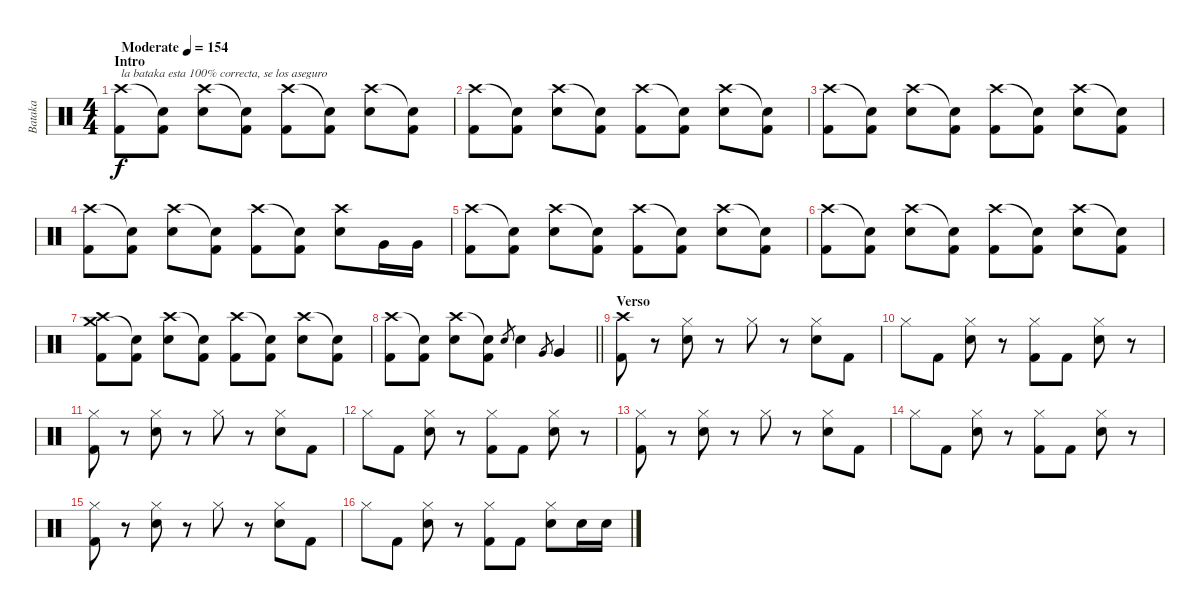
\track ("Bataka" "Bataka") {instrument percussion}
\staff {score}
\articulation defaults
\ts (4 4)
\section ("" "Intro")
\tempo (154 "Moderate")
\clef neutral
\ks c
("Crash high (hit)" "Kick (hit) 2").8{txt "la bataka esta 100% correcta, se los aseguro" dy f} ("Snare (hit)"{t} "Kick (hit) 2").8 ("Crash high (hit)" "Electric Snare (hit)").8 ("Snare (hit)"{t} "Kick (hit) 2").8 ("Crash high (hit)" "Kick (hit) 2").8 ("Snare (hit)"{t} "Kick (hit) 2").8 ("Crash high (hit)" "Electric Snare (hit)").8 ("Snare (hit)"{t} "Kick (hit) 2").8 |
("Crash high (hit)" "Kick (hit) 2").8 ("Snare (hit)"{t} "Kick (hit) 2").8 ("Crash high (hit)" "Electric Snare (hit)").8 ("Snare (hit)"{t} "Kick (hit) 2").8 ("Crash high (hit)" "Kick (hit) 2").8 ("Snare (hit)"{t} "Kick (hit) 2").8 ("Crash high (hit)" "Electric Snare (hit)").8 ("Snare (hit)"{t} "Kick (hit) 2").8 |
("Crash high (hit)" "Kick (hit) 2").8 ("Snare (hit)"{t} "Kick (hit) 2").8 ("Crash high (hit)" "Electric Snare (hit)").8 ("Snare (hit)"{t} "Kick (hit) 2").8 ("Crash high (hit)" "Kick (hit) 2").8 ("Snare (hit)"{t} "Kick (hit) 2").8 ("Crash high (hit)" "Electric Snare (hit)").8 ("Snare (hit)"{t} "Kick (hit) 2").8 |
("Crash high (hit)" "Kick (hit) 2").8 ("Snare (hit)"{t} "Kick (hit) 2").8 ("Crash high (hit)" "Electric Snare (hit)").8 ("Snare (hit)"{t} "Kick (hit) 2").8 ("Crash high (hit)" "Kick (hit) 2").8 ("Snare (hit)"{t} "Kick (hit) 2").8 ("Crash high (hit)" "Electric Snare (hit)").8 "Very Low Tom (hit)".16 "Very Low Tom (hit)".16 |
("Crash high (hit)" "Kick (hit) 2").8 ("Snare (hit)"{t} "Kick (hit) 2").8 ("Crash high (hit)" "Electric Snare (hit)").8 ("Snare (hit)"{t} "Kick (hit) 2").8 ("Crash high (hit)" "Kick (hit) 2").8 ("Snare (hit)"{t} "Kick (hit) 2").8 ("Crash high (hit)" "Electric Snare (hit)").8 ("Snare (hit)"{t} "Kick (hit) 2").8 |
("Crash high (hit)" "Kick (hit) 2").8 ("Snare (hit)"{t} "Kick (hit) 2").8 ("Crash high (hit)" "Electric Snare (hit)").8 ("Snare (hit)"{t} "Kick (hit) 2").8 ("Crash high (hit)" "Kick (hit) 2").8 ("Snare (hit)"{t} "Kick (hit) 2").8 ("Crash high (hit)" "Electric Snare (hit)").8 ("Snare (hit)"{t} "Kick (hit) 2").8 |
("Crash medium (hit)" "Crash high (hit)" "Kick (hit) 2").8 ("Snare (hit)"{t} "Kick (hit) 2").8 ("Crash high (hit)" "Electric Snare (hit)").8 ("Snare (hit)"{t} "Kick (hit) 2").8 ("Crash high (hit)" "Kick (hit) 2").8 ("Snare (hit)"{t} "Kick (hit) 2").8 ("Crash high (hit)" "Electric Snare (hit)").8 ("Snare (hit)"{t} "Kick (hit) 2").8 |
\barLineRight lightlight
("Crash high (hit)" "Kick (hit) 2").8 ("Snare (hit)"{t} "Kick (hit) 2").8 ("Crash high (hit)" "Electric Snare (hit)").8 ("Snare (hit)"{t} "Kick (hit) 2").8 "Electric Snare (hit)".8{gr} "Electric Snare (hit)".4 "Very Low Tom (hit)".8{gr} "Very Low Tom (hit)".4 |
\section ("" "Verso")
("Crash high (hit)" "Kick (hit) 2").8 r.8 ("Hi-Hat (closed)" "Electric Snare (hit)").8 r.8 "Hi-Hat (closed)".8 r.8 ("Hi-Hat (closed)" "Electric Snare (hit)").8 "Kick (hit) 2".8 |
"Hi-Hat (closed)".8 "Kick (hit) 2".8 ("Hi-Hat (closed)" "Electric Snare (hit)").8 r.8 ("Hi-Hat (closed)" "Kick (hit) 2").8 "Kick (hit) 2".8 ("Hi-Hat (closed)" "Electric Snare (hit)").8 r.8 |
("Hi-Hat (closed)" "Kick (hit) 2").8 r.8 ("Hi-Hat (closed)" "Electric Snare (hit)").8 r.8 "Hi-Hat (closed)".8 r.8 ("Hi-Hat (closed)" "Electric Snare (hit)").8 "Kick (hit) 2".8 |
"Hi-Hat (closed)".8 "Kick (hit) 2".8 ("Hi-Hat (closed)" "Electric Snare (hit)").8 r.8 ("Hi-Hat (closed)" "Kick (hit) 2").8 "Kick (hit) 2".8 ("Hi-Hat (closed)" "Electric Snare (hit)").8 r.8 |
("Hi-Hat (closed)" "Kick (hit) 2").8 r.8 ("Hi-Hat (closed)" "Electric Snare (hit)").8 r.8 "Hi-Hat (closed)".8 r.8 ("Hi-Hat (closed)" "Electric Snare (hit)").8 "Kick (hit) 2".8 |
"Hi-Hat (closed)".8 "Kick (hit) 2".8 ("Hi-Hat (closed)" "Electric Snare (hit)").8 r.8 ("Hi-Hat (closed)" "Kick (hit) 2").8 "Kick (hit) 2".8 ("Hi-Hat (closed)" "Electric Snare (hit)").8 r.8 |
("Hi-Hat (closed)" "Kick (hit) 2").8 r.8 ("Hi-Hat (closed)" "Electric Snare (hit)").8 r.8 "Hi-Hat (closed)".8 r.8 ("Hi-Hat (closed)" "Electric Snare (hit)").8 "Kick (hit) 2".8 |
"Hi-Hat (closed)".8 "Kick (hit) 2".8 ("Hi-Hat (closed)" "Electric Snare (hit)").8 r.8 ("Hi-Hat (closed)" "Kick (hit) 2").8 "Kick (hit) 2".8 ("Hi-Hat (closed)" "Electric Snare (hit)").8 "Electric Snare (hit)".16 "Electric Snare (hit)".16
